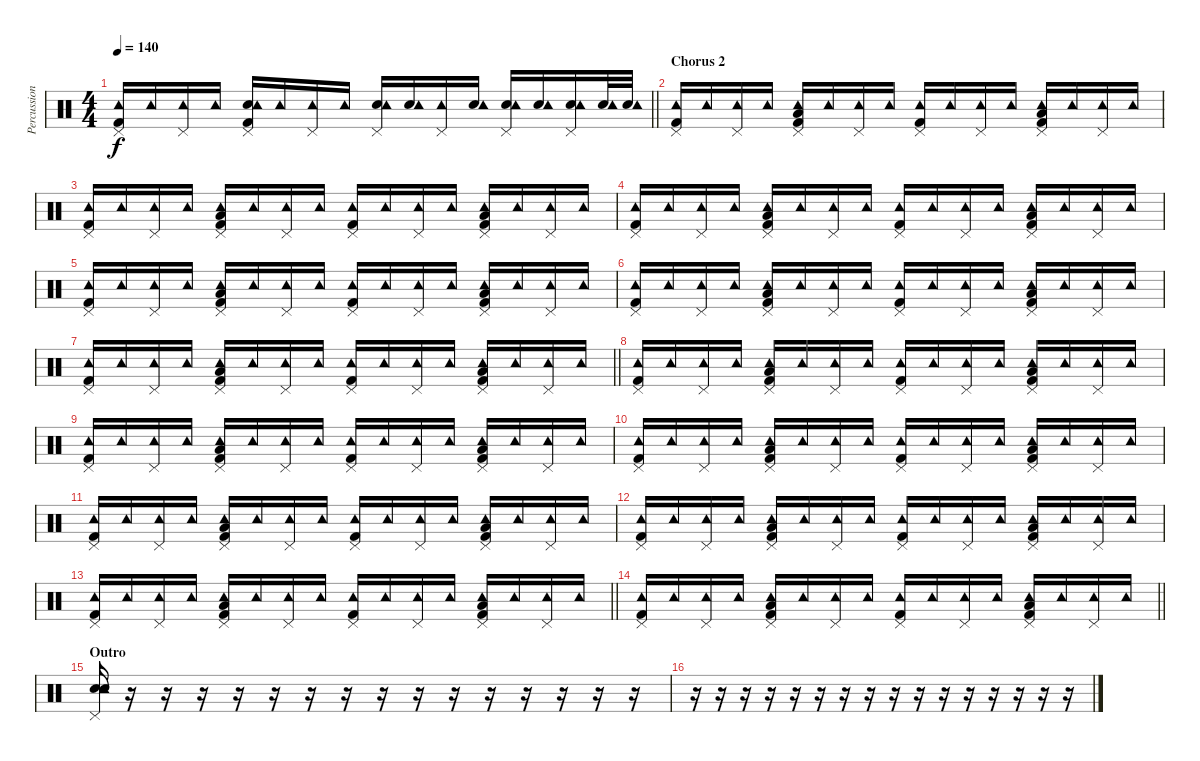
\track ("Percussion" "Percussion") {instrument percussion}
\staff {score}
\articulation defaults
\ts (4 4)
\tempo 140
\clef neutral
\barLineRight lightlight
\ks c
("Kick (hit) 2" "Pedal Hi-Hat (hit)" "Tambourine (hit)").16{dy f} "Tambourine (hit)".16 ("Pedal Hi-Hat (hit)" "Tambourine (hit)").16 "Tambourine (hit)".16 ("Electric Snare (hit)" "Kick (hit) 2" "Pedal Hi-Hat (hit)" "Tambourine (hit)").16 "Tambourine (hit)".16 ("Pedal Hi-Hat (hit)" "Tambourine (hit)").16 "Tambourine (hit)".16 ("Electric Snare (hit)" "Pedal Hi-Hat (hit)" "Tambourine (hit)").16 ("Snare (hit) 2" "Tambourine (hit)").16 ("Pedal Hi-Hat (hit)" "Tambourine (hit)").16 ("Snare (hit) 2" "Tambourine (hit)").16 ("Electric Snare (hit)" "Pedal Hi-Hat (hit)" "Tambourine (hit)").16 ("Snare (hit) 2" "Tambourine (hit)").16 ("Electric Snare (hit)" "Pedal Hi-Hat (hit)" "Tambourine (hit)").16 ("Snare (hit) 2" "Tambourine (hit)").32 ("Electric Snare (hit)" "Tambourine (hit)").32 |
\section ("" "Chorus 2")
("Kick (hit) 2" "Pedal Hi-Hat (hit)" "Tambourine (hit)").16 "Tambourine (hit)".16 ("Pedal Hi-Hat (hit)" "Tambourine (hit)").16 "Tambourine (hit)".16 ("Low Tom (hit)" "Kick (hit) 2" "Pedal Hi-Hat (hit)" "Tambourine (hit)").16 "Tambourine (hit)".16 ("Pedal Hi-Hat (hit)" "Tambourine (hit)").16 "Tambourine (hit)".16 ("Kick (hit) 2" "Pedal Hi-Hat (hit)" "Tambourine (hit)").16 "Tambourine (hit)".16 ("Pedal Hi-Hat (hit)" "Tambourine (hit)").16 "Tambourine (hit)".16 ("Low Tom (hit)" "Kick (hit) 2" "Pedal Hi-Hat (hit)" "Tambourine (hit)").16 "Tambourine (hit)".16 ("Pedal Hi-Hat (hit)" "Tambourine (hit)").16 "Tambourine (hit)".16 |
("Kick (hit) 2" "Pedal Hi-Hat (hit)" "Tambourine (hit)").16 "Tambourine (hit)".16 ("Pedal Hi-Hat (hit)" "Tambourine (hit)").16 "Tambourine (hit)".16 ("Low Tom (hit)" "Kick (hit) 2" "Pedal Hi-Hat (hit)" "Tambourine (hit)").16 "Tambourine (hit)".16 ("Pedal Hi-Hat (hit)" "Tambourine (hit)").16 "Tambourine (hit)".16 ("Kick (hit) 2" "Pedal Hi-Hat (hit)" "Tambourine (hit)").16 "Tambourine (hit)".16 ("Pedal Hi-Hat (hit)" "Tambourine (hit)").16 "Tambourine (hit)".16 ("Low Tom (hit)" "Kick (hit) 2" "Pedal Hi-Hat (hit)" "Tambourine (hit)").16 "Tambourine (hit)".16 ("Pedal Hi-Hat (hit)" "Tambourine (hit)").16 "Tambourine (hit)".16 |
("Kick (hit) 2" "Pedal Hi-Hat (hit)" "Tambourine (hit)").16 "Tambourine (hit)".16 ("Pedal Hi-Hat (hit)" "Tambourine (hit)").16 "Tambourine (hit)".16 ("Low Tom (hit)" "Kick (hit) 2" "Pedal Hi-Hat (hit)" "Tambourine (hit)").16 "Tambourine (hit)".16 ("Pedal Hi-Hat (hit)" "Tambourine (hit)").16 "Tambourine (hit)".16 ("Kick (hit) 2" "Pedal Hi-Hat (hit)" "Tambourine (hit)").16 "Tambourine (hit)".16 ("Pedal Hi-Hat (hit)" "Tambourine (hit)").16 "Tambourine (hit)".16 ("Low Tom (hit)" "Kick (hit) 2" "Pedal Hi-Hat (hit)" "Tambourine (hit)").16 "Tambourine (hit)".16 ("Pedal Hi-Hat (hit)" "Tambourine (hit)").16 "Tambourine (hit)".16 |
("Kick (hit) 2" "Pedal Hi-Hat (hit)" "Tambourine (hit)").16 "Tambourine (hit)".16 ("Pedal Hi-Hat (hit)" "Tambourine (hit)").16 "Tambourine (hit)".16 ("Low Tom (hit)" "Kick (hit) 2" "Pedal Hi-Hat (hit)" "Tambourine (hit)").16 "Tambourine (hit)".16 ("Pedal Hi-Hat (hit)" "Tambourine (hit)").16 "Tambourine (hit)".16 ("Kick (hit) 2" "Pedal Hi-Hat (hit)" "Tambourine (hit)").16 "Tambourine (hit)".16 ("Pedal Hi-Hat (hit)" "Tambourine (hit)").16 "Tambourine (hit)".16 ("Low Tom (hit)" "Kick (hit) 2" "Pedal Hi-Hat (hit)" "Tambourine (hit)").16 "Tambourine (hit)".16 ("Pedal Hi-Hat (hit)" "Tambourine (hit)").16 "Tambourine (hit)".16 |
("Kick (hit) 2" "Pedal Hi-Hat (hit)" "Tambourine (hit)").16 "Tambourine (hit)".16 ("Pedal Hi-Hat (hit)" "Tambourine (hit)").16 "Tambourine (hit)".16 ("Low Tom (hit)" "Kick (hit) 2" "Pedal Hi-Hat (hit)" "Tambourine (hit)").16 "Tambourine (hit)".16 ("Pedal Hi-Hat (hit)" "Tambourine (hit)").16 "Tambourine (hit)".16 ("Kick (hit) 2" "Pedal Hi-Hat (hit)" "Tambourine (hit)").16 "Tambourine (hit)".16 ("Pedal Hi-Hat (hit)" "Tambourine (hit)").16 "Tambourine (hit)".16 ("Low Tom (hit)" "Kick (hit) 2" "Pedal Hi-Hat (hit)" "Tambourine (hit)").16 "Tambourine (hit)".16 ("Pedal Hi-Hat (hit)" "Tambourine (hit)").16 "Tambourine (hit)".16 |
\barLineRight lightlight
("Kick (hit) 2" "Pedal Hi-Hat (hit)" "Tambourine (hit)").16 "Tambourine (hit)".16 ("Pedal Hi-Hat (hit)" "Tambourine (hit)").16 "Tambourine (hit)".16 ("Low Tom (hit)" "Kick (hit) 2" "Pedal Hi-Hat (hit)" "Tambourine (hit)").16 "Tambourine (hit)".16 ("Pedal Hi-Hat (hit)" "Tambourine (hit)").16 "Tambourine (hit)".16 ("Kick (hit) 2" "Pedal Hi-Hat (hit)" "Tambourine (hit)").16 "Tambourine (hit)".16 ("Pedal Hi-Hat (hit)" "Tambourine (hit)").16 "Tambourine (hit)".16 ("Low Tom (hit)" "Kick (hit) 2" "Pedal Hi-Hat (hit)" "Tambourine (hit)").16 "Tambourine (hit)".16 ("Pedal Hi-Hat (hit)" "Tambourine (hit)").16 "Tambourine (hit)".16 |
("Kick (hit) 2" "Pedal Hi-Hat (hit)" "Tambourine (hit)").16 "Tambourine (hit)".16 ("Pedal Hi-Hat (hit)" "Tambourine (hit)").16 "Tambourine (hit)".16 ("Low Tom (hit)" "Kick (hit) 2" "Pedal Hi-Hat (hit)" "Tambourine (hit)").16 "Tambourine (hit)".16 ("Pedal Hi-Hat (hit)" "Tambourine (hit)").16 "Tambourine (hit)".16 ("Kick (hit) 2" "Pedal Hi-Hat (hit)" "Tambourine (hit)").16 "Tambourine (hit)".16 ("Pedal Hi-Hat (hit)" "Tambourine (hit)").16 "Tambourine (hit)".16 ("Low Tom (hit)" "Kick (hit) 2" "Pedal Hi-Hat (hit)" "Tambourine (hit)").16 "Tambourine (hit)".16 ("Pedal Hi-Hat (hit)" "Tambourine (hit)").16 "Tambourine (hit)".16 |
("Kick (hit) 2" "Pedal Hi-Hat (hit)" "Tambourine (hit)").16 "Tambourine (hit)".16 ("Pedal Hi-Hat (hit)" "Tambourine (hit)").16 "Tambourine (hit)".16 ("Low Tom (hit)" "Kick (hit) 2" "Pedal Hi-Hat (hit)" "Tambourine (hit)").16 "Tambourine (hit)".16 ("Pedal Hi-Hat (hit)" "Tambourine (hit)").16 "Tambourine (hit)".16 ("Kick (hit) 2" "Pedal Hi-Hat (hit)" "Tambourine (hit)").16 "Tambourine (hit)".16 ("Pedal Hi-Hat (hit)" "Tambourine (hit)").16 "Tambourine (hit)".16 ("Low Tom (hit)" "Kick (hit) 2" "Pedal Hi-Hat (hit)" "Tambourine (hit)").16 "Tambourine (hit)".16 ("Pedal Hi-Hat (hit)" "Tambourine (hit)").16 "Tambourine (hit)".16 |
("Kick (hit) 2" "Pedal Hi-Hat (hit)" "Tambourine (hit)").16 "Tambourine (hit)".16 ("Pedal Hi-Hat (hit)" "Tambourine (hit)").16 "Tambourine (hit)".16 ("Low Tom (hit)" "Kick (hit) 2" "Pedal Hi-Hat (hit)" "Tambourine (hit)").16 "Tambourine (hit)".16 ("Pedal Hi-Hat (hit)" "Tambourine (hit)").16 "Tambourine (hit)".16 ("Kick (hit) 2" "Pedal Hi-Hat (hit)" "Tambourine (hit)").16 "Tambourine (hit)".16 ("Pedal Hi-Hat (hit)" "Tambourine (hit)").16 "Tambourine (hit)".16 ("Low Tom (hit)" "Kick (hit) 2" "Pedal Hi-Hat (hit)" "Tambourine (hit)").16 "Tambourine (hit)".16 ("Pedal Hi-Hat (hit)" "Tambourine (hit)").16 "Tambourine (hit)".16 |
("Kick (hit) 2" "Pedal Hi-Hat (hit)" "Tambourine (hit)").16 "Tambourine (hit)".16 ("Pedal Hi-Hat (hit)" "Tambourine (hit)").16 "Tambourine (hit)".16 ("Low Tom (hit)" "Kick (hit) 2" "Pedal Hi-Hat (hit)" "Tambourine (hit)").16 "Tambourine (hit)".16 ("Pedal Hi-Hat (hit)" "Tambourine (hit)").16 "Tambourine (hit)".16 ("Kick (hit) 2" "Pedal Hi-Hat (hit)" "Tambourine (hit)").16 "Tambourine (hit)".16 ("Pedal Hi-Hat (hit)" "Tambourine (hit)").16 "Tambourine (hit)".16 ("Low Tom (hit)" "Kick (hit) 2" "Pedal Hi-Hat (hit)" "Tambourine (hit)").16 "Tambourine (hit)".16 ("Pedal Hi-Hat (hit)" "Tambourine (hit)").16 "Tambourine (hit)".16 |
("Kick (hit) 2" "Pedal Hi-Hat (hit)" "Tambourine (hit)").16 "Tambourine (hit)".16 ("Pedal Hi-Hat (hit)" "Tambourine (hit)").16 "Tambourine (hit)".16 ("Low Tom (hit)" "Kick (hit) 2" "Pedal Hi-Hat (hit)" "Tambourine (hit)").16 "Tambourine (hit)".16 ("Pedal Hi-Hat (hit)" "Tambourine (hit)").16 "Tambourine (hit)".16 ("Kick (hit) 2" "Pedal Hi-Hat (hit)" "Tambourine (hit)").16 "Tambourine (hit)".16 ("Pedal Hi-Hat (hit)" "Tambourine (hit)").16 "Tambourine (hit)".16 ("Low Tom (hit)" "Kick (hit) 2" "Pedal Hi-Hat (hit)" "Tambourine (hit)").16 "Tambourine (hit)".16 ("Pedal Hi-Hat (hit)" "Tambourine (hit)").16 "Tambourine (hit)".16 |
\barLineRight lightlight
("Kick (hit) 2" "Pedal Hi-Hat (hit)" "Tambourine (hit)").16 "Tambourine (hit)".16 ("Pedal Hi-Hat (hit)" "Tambourine (hit)").16 "Tambourine (hit)".16 ("Low Tom (hit)" "Kick (hit) 2" "Pedal Hi-Hat (hit)" "Tambourine (hit)").16 "Tambourine (hit)".16 ("Pedal Hi-Hat (hit)" "Tambourine (hit)").16 "Tambourine (hit)".16 ("Kick (hit) 2" "Pedal Hi-Hat (hit)" "Tambourine (hit)").16 "Tambourine (hit)".16 ("Pedal Hi-Hat (hit)" "Tambourine (hit)").16 "Tambourine (hit)".16 ("Low Tom (hit)" "Kick (hit) 2" "Pedal Hi-Hat (hit)" "Tambourine (hit)").16 "Tambourine (hit)".16 ("Pedal Hi-Hat (hit)" "Tambourine (hit)").16 "Tambourine (hit)".16 |
\barLineRight lightlight
("Kick (hit) 2" "Pedal Hi-Hat (hit)" "Tambourine (hit)").16 "Tambourine (hit)".16 ("Pedal Hi-Hat (hit)" "Tambourine (hit)").16 "Tambourine (hit)".16 ("Low Tom (hit)" "Kick (hit) 2" "Pedal Hi-Hat (hit)" "Tambourine (hit)").16 "Tambourine (hit)".16 ("Pedal Hi-Hat (hit)" "Tambourine (hit)").16 "Tambourine (hit)".16 ("Kick (hit) 2" "Pedal Hi-Hat (hit)" "Tambourine (hit)").16 "Tambourine (hit)".16 ("Pedal Hi-Hat (hit)" "Tambourine (hit)").16 "Tambourine (hit)".16 ("Low Tom (hit)" "Kick (hit) 2" "Pedal Hi-Hat (hit)" "Tambourine (hit)").16 "Tambourine (hit)".16 ("Pedal Hi-Hat (hit)" "Tambourine (hit)").16 "Tambourine (hit)".16 |
\section ("" "Outro")
("Electric Snare (hit)" "Electric Snare (hit)" "Pedal Hi-Hat (hit)" "Tambourine (hit)").16 r.16 r.16 r.16 r.16 r.16 r.16 r.16 r.16 r.16 r.16 r.16 r.16 r.16 r.16 r.16 |
r.16 r.16 r.16 r.16 r.16 r.16 r.16 r.16 r.16 r.16 r.16 r.16 r.16 r.16 r.16 r.16
